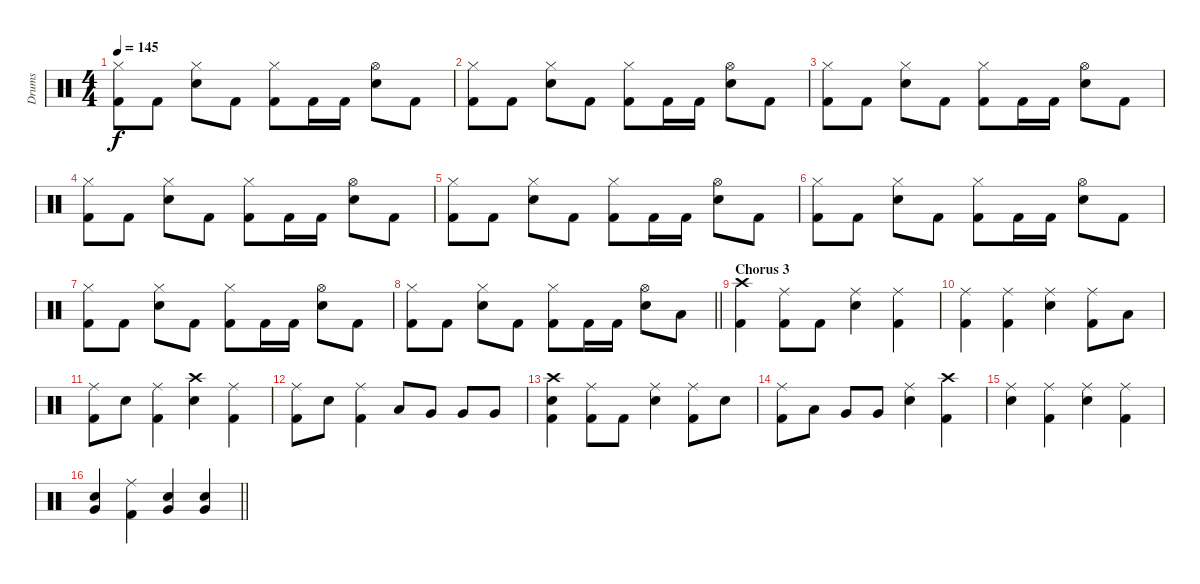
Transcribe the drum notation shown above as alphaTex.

\track ("Drums" "Drums") {instrument percussion}
\staff {score}
\articulation defaults
\ts (4 4)
\tempo 145
\clef neutral
\ks c
("Hi-Hat (closed)" "Kick (hit) 2").8{dy f} "Kick (hit) 2".8 ("Hi-Hat (closed)" "Snare (hit) 2").8 "Kick (hit) 2".8 ("Hi-Hat (closed)" "Kick (hit) 2").8 "Kick (hit) 2".16 "Kick (hit) 2".16 ("Hi-Hat (open)" "Snare (hit) 2").8 "Kick (hit) 2".8 |
("Hi-Hat (closed)" "Kick (hit) 2").8 "Kick (hit) 2".8 ("Hi-Hat (closed)" "Snare (hit) 2").8 "Kick (hit) 2".8 ("Hi-Hat (closed)" "Kick (hit) 2").8 "Kick (hit) 2".16 "Kick (hit) 2".16 ("Hi-Hat (open)" "Snare (hit) 2").8 "Kick (hit) 2".8 |
("Hi-Hat (closed)" "Kick (hit) 2").8 "Kick (hit) 2".8 ("Hi-Hat (closed)" "Snare (hit) 2").8 "Kick (hit) 2".8 ("Hi-Hat (closed)" "Kick (hit) 2").8 "Kick (hit) 2".16 "Kick (hit) 2".16 ("Hi-Hat (open)" "Snare (hit) 2").8 "Kick (hit) 2".8 |
("Hi-Hat (closed)" "Kick (hit) 2").8 "Kick (hit) 2".8 ("Hi-Hat (closed)" "Snare (hit) 2").8 "Kick (hit) 2".8 ("Hi-Hat (closed)" "Kick (hit) 2").8 "Kick (hit) 2".16 "Kick (hit) 2".16 ("Hi-Hat (open)" "Snare (hit) 2").8 "Kick (hit) 2".8 |
("Hi-Hat (closed)" "Kick (hit) 2").8 "Kick (hit) 2".8 ("Hi-Hat (closed)" "Snare (hit) 2").8 "Kick (hit) 2".8 ("Hi-Hat (closed)" "Kick (hit) 2").8 "Kick (hit) 2".16 "Kick (hit) 2".16 ("Hi-Hat (open)" "Snare (hit) 2").8 "Kick (hit) 2".8 |
("Hi-Hat (closed)" "Kick (hit) 2").8 "Kick (hit) 2".8 ("Hi-Hat (closed)" "Snare (hit) 2").8 "Kick (hit) 2".8 ("Hi-Hat (closed)" "Kick (hit) 2").8 "Kick (hit) 2".16 "Kick (hit) 2".16 ("Hi-Hat (open)" "Snare (hit) 2").8 "Kick (hit) 2".8 |
("Hi-Hat (closed)" "Kick (hit) 2").8 "Kick (hit) 2".8 ("Hi-Hat (closed)" "Snare (hit) 2").8 "Kick (hit) 2".8 ("Hi-Hat (closed)" "Kick (hit) 2").8 "Kick (hit) 2".16 "Kick (hit) 2".16 ("Hi-Hat (open)" "Snare (hit) 2").8 "Kick (hit) 2".8 |
\barLineRight lightlight
("Hi-Hat (closed)" "Kick (hit) 2").8 "Kick (hit) 2".8 ("Hi-Hat (closed)" "Snare (hit) 2").8 "Kick (hit) 2".8 ("Hi-Hat (closed)" "Kick (hit) 2").8 "Kick (hit) 2".16 "Kick (hit) 2".16 ("Hi-Hat (open)" "Snare (hit) 2").8 "Low Tom (hit)".8 |
\section ("" "Chorus 3")
("Crash high (hit)" "Kick (hit) 2").4 ("Ride (middle)" "Kick (hit) 2").8 "Kick (hit) 2".8 ("Ride (middle)" "Snare (hit) 2").4 ("Ride (middle)" "Kick (hit) 2").4 |
("Ride (middle)" "Kick (hit) 2").4 ("Ride (middle)" "Kick (hit) 2").4 ("Ride (middle)" "Snare (hit) 2").4 ("Ride (middle)" "Kick (hit) 2").8 "Low Tom (hit)".8 |
("Ride (middle)" "Kick (hit) 2").8 "Snare (hit) 2".8 ("Ride (middle)" "Kick (hit) 2").4 ("Crash high (hit)" "Snare (hit) 2").4 ("Ride (middle)" "Kick (hit) 2").4 |
("Ride (middle)" "Kick (hit) 2").8 "Snare (hit) 2".8 ("Ride (middle)" "Kick (hit) 2").4 "Low Tom (hit)".8 "Very Low Tom (hit)".8 "Very Low Tom (hit)".8 "Very Low Tom (hit)".8 |
("Crash high (hit)" "Snare (hit) 2" "Kick (hit) 2").4 ("Ride (middle)" "Kick (hit) 2").8 "Kick (hit) 2".8 ("Ride (middle)" "Snare (hit) 2").4 ("Ride (middle)" "Kick (hit) 2").8 "Snare (hit) 2".8 |
("Ride (middle)" "Kick (hit) 2").8 "Low Tom (hit)".8 "Very Low Tom (hit)".8 "Very Low Tom (hit)".8 ("Ride (middle)" "Snare (hit) 2").4 ("Crash high (hit)" "Kick (hit) 2").4 |
("Ride (middle)" "Snare (hit) 2").4 ("Ride (middle)" "Kick (hit) 2").4 ("Ride (middle)" "Snare (hit) 2").4 ("Ride (middle)" "Kick (hit) 2").4 |
\barLineRight lightlight
("Snare (hit) 2" "Very Low Tom (hit)").4 ("Ride (middle)" "Kick (hit) 2").4 ("Snare (hit) 2" "Very Low Tom (hit)").4 ("Snare (hit) 2" "Very Low Tom (hit)").4
